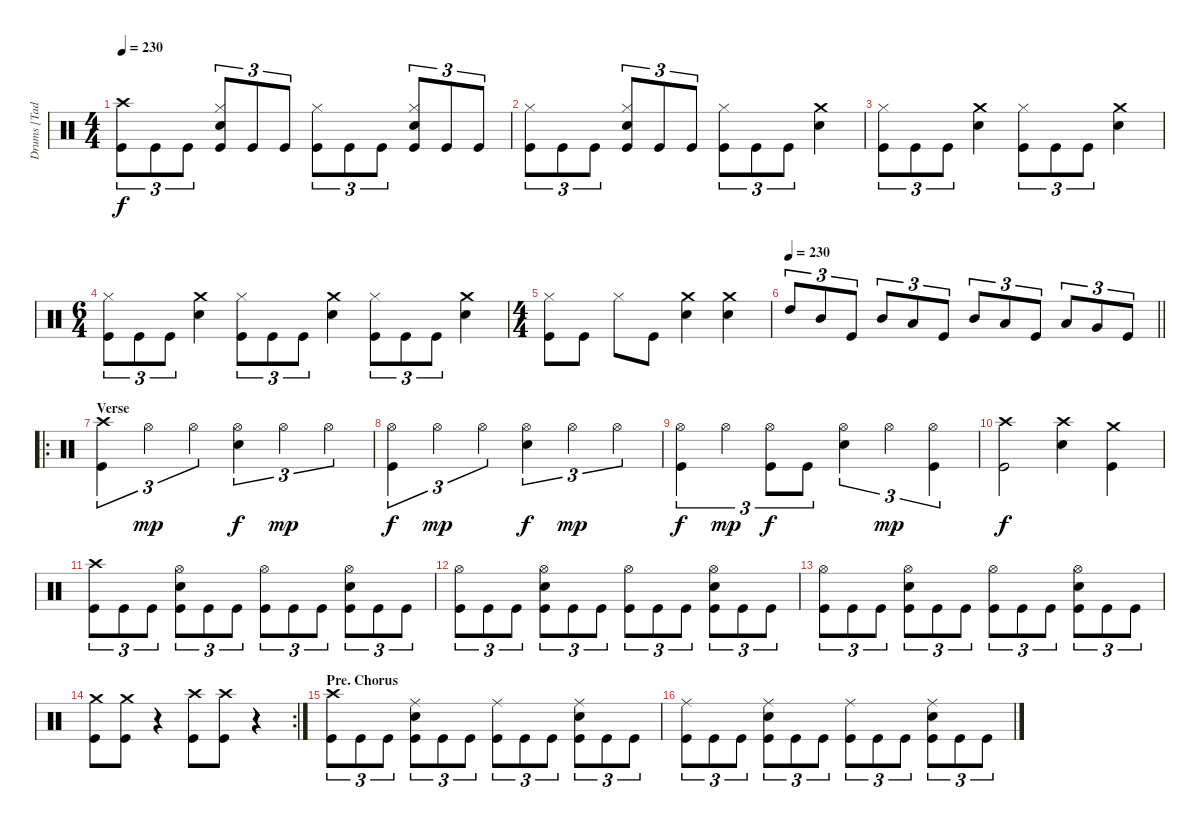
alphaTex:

\track ("Drums [Tad Leger]" "Drums [Tad") {instrument percussion}
\staff {score}
\articulation defaults
\ts (4 4)
\tempo 230
\clef neutral
\ks c
("Crash high (hit)" "Kick (hit)").8{tu (3 2) dy f} "Kick (hit)".8{tu (3 2)} "Kick (hit)".8{tu (3 2)} ("Hi-Hat (closed)" "Electric Snare (hit)" "Kick (hit)").8{tu (3 2)} "Kick (hit)".8{tu (3 2)} "Kick (hit)".8{tu (3 2)} ("Hi-Hat (closed)" "Kick (hit)").8{tu (3 2)} "Kick (hit)".8{tu (3 2)} "Kick (hit)".8{tu (3 2)} ("Hi-Hat (closed)" "Electric Snare (hit)" "Kick (hit)").8{tu (3 2)} "Kick (hit)".8{tu (3 2)} "Kick (hit)".8{tu (3 2)} |
("Hi-Hat (closed)" "Kick (hit)").8{tu (3 2)} "Kick (hit)".8{tu (3 2)} "Kick (hit)".8{tu (3 2)} ("Hi-Hat (closed)" "Electric Snare (hit)" "Kick (hit)").8{tu (3 2)} "Kick (hit)".8{tu (3 2)} "Kick (hit)".8{tu (3 2)} ("Hi-Hat (closed)" "Kick (hit)").8{tu (3 2)} "Kick (hit)".8{tu (3 2)} "Kick (hit)".8{tu (3 2)} ("Crash medium (hit)" "Electric Snare (hit)").4 |
("Hi-Hat (closed)" "Kick (hit)").8{tu (3 2)} "Kick (hit)".8{tu (3 2)} "Kick (hit)".8{tu (3 2)} ("Crash medium (hit)" "Electric Snare (hit)").4 ("Hi-Hat (closed)" "Kick (hit)").8{tu (3 2)} "Kick (hit)".8{tu (3 2)} "Kick (hit)".8{tu (3 2)} ("Crash medium (hit)" "Electric Snare (hit)").4 |
\ts (6 4)
("Hi-Hat (closed)" "Kick (hit)").8{tu (3 2)} "Kick (hit)".8{tu (3 2)} "Kick (hit)".8{tu (3 2)} ("Crash medium (hit)" "Electric Snare (hit)").4 ("Hi-Hat (closed)" "Kick (hit)").8{tu (3 2)} "Kick (hit)".8{tu (3 2)} "Kick (hit)".8{tu (3 2)} ("Crash medium (hit)" "Electric Snare (hit)").4 ("Hi-Hat (closed)" "Kick (hit)").8{tu (3 2)} "Kick (hit)".8{tu (3 2)} "Kick (hit)".8{tu (3 2)} ("Crash medium (hit)" "Electric Snare (hit)").4 |
\ts (4 4)
("Hi-Hat (closed)" "Kick (hit)").8 "Kick (hit)".8 "Hi-Hat (closed)".8 "Kick (hit)".8 ("Crash medium (hit)" "Electric Snare (hit)").4 ("Crash medium (hit)" "Electric Snare (hit)").4 |
\tempo 230
\barLineRight lightlight "High Tom (hit)".8{tu (3 2)} "Mid Tom (hit)".8{tu (3 2)} "Kick (hit)".8{tu (3 2)} "Mid Tom (hit)".8{tu (3 2)} "Low Tom (hit)".8{tu (3 2)} "Kick (hit)".8{tu (3 2)} "Mid Tom (hit)".8{tu (3 2)} "Low Tom (hit)".8{tu (3 2)} "Kick (hit)".8{tu (3 2)} "Low Tom (hit)".8{tu (3 2)} "Very Low Tom (hit)".8{tu (3 2)} "Kick (hit)".8{tu (3 2)}
|
\ro
\section ("" "Verse")
("Crash high (hit)" "Kick (hit)").4{tu (3 2)} "Hi-Hat (open)".4{tu (3 2) dy mp} "Hi-Hat (open)".4{tu (3 2)} ("Hi-Hat (open)" "Electric Snare (hit)").4{tu (3 2) dy f} "Hi-Hat (open)".4{tu (3 2) dy mp} "Hi-Hat (open)".4{tu (3 2)} |
("Hi-Hat (open)" "Kick (hit)").4{tu (3 2) dy f} "Hi-Hat (open)".4{tu (3 2) dy mp} "Hi-Hat (open)".4{tu (3 2)} ("Hi-Hat (open)" "Electric Snare (hit)").4{tu (3 2) dy f} "Hi-Hat (open)".4{tu (3 2) dy mp} "Hi-Hat (open)".4{tu (3 2)} |
("Hi-Hat (open)" "Kick (hit)").4{tu (3 2) dy f} "Hi-Hat (open)".4{tu (3 2) dy mp} ("Hi-Hat (open)" "Kick (hit)").8{tu (3 2) dy f} "Kick (hit)".8{tu (3 2)} ("Hi-Hat (open)" "Electric Snare (hit)").4{tu (3 2)} "Hi-Hat (open)".4{tu (3 2) dy mp} ("Hi-Hat (open)" "Kick (hit)").4{tu (3 2)} |
("Crash high (hit)" "Kick (hit)").2{dy f} ("Crash high (hit)" "Electric Snare (hit)").4 ("Crash medium (hit)" "Kick (hit)").4 |
("Crash high (hit)" "Kick (hit)").8{tu (3 2)} "Kick (hit)".8{tu (3 2)} "Kick (hit)".8{tu (3 2)} ("Hi-Hat (open)" "Electric Snare (hit)" "Kick (hit)").8{tu (3 2)} "Kick (hit)".8{tu (3 2)} "Kick (hit)".8{tu (3 2)} ("Hi-Hat (open)" "Kick (hit)").8{tu (3 2)} "Kick (hit)".8{tu (3 2)} "Kick (hit)".8{tu (3 2)} ("Hi-Hat (open)" "Electric Snare (hit)" "Kick (hit)").8{tu (3 2)} "Kick (hit)".8{tu (3 2)} "Kick (hit)".8{tu (3 2)} |
("Hi-Hat (open)" "Kick (hit)").8{tu (3 2)} "Kick (hit)".8{tu (3 2)} "Kick (hit)".8{tu (3 2)} ("Hi-Hat (open)" "Electric Snare (hit)" "Kick (hit)").8{tu (3 2)} "Kick (hit)".8{tu (3 2)} "Kick (hit)".8{tu (3 2)} ("Hi-Hat (open)" "Kick (hit)").8{tu (3 2)} "Kick (hit)".8{tu (3 2)} "Kick (hit)".8{tu (3 2)} ("Hi-Hat (open)" "Electric Snare (hit)" "Kick (hit)").8{tu (3 2)} "Kick (hit)".8{tu (3 2)} "Kick (hit)".8{tu (3 2)} |
("Hi-Hat (open)" "Kick (hit)").8{tu (3 2)} "Kick (hit)".8{tu (3 2)} "Kick (hit)".8{tu (3 2)} ("Hi-Hat (open)" "Electric Snare (hit)" "Kick (hit)").8{tu (3 2)} "Kick (hit)".8{tu (3 2)} "Kick (hit)".8{tu (3 2)} ("Hi-Hat (open)" "Kick (hit)").8{tu (3 2)} "Kick (hit)".8{tu (3 2)} "Kick (hit)".8{tu (3 2)} ("Hi-Hat (open)" "Electric Snare (hit)" "Kick (hit)").8{tu (3 2)} "Kick (hit)".8{tu (3 2)} "Kick (hit)".8{tu (3 2)} |
\rc 2
("Crash medium (hit)" "Kick (hit)").8 ("Crash medium (hit)" "Kick (hit)").8 r.4 ("Crash high (hit)" "Kick (hit)").8 ("Crash high (hit)" "Kick (hit)").8 r.4 |
\section ("" "Pre. Chorus")
("Crash high (hit)" "Kick (hit)").8{tu (3 2)} "Kick (hit)".8{tu (3 2)} "Kick (hit)".8{tu (3 2)} ("Ride (middle)" "Electric Snare (hit)" "Kick (hit)").8{tu (3 2)} "Kick (hit)".8{tu (3 2)} "Kick (hit)".8{tu (3 2)} ("Ride (middle)" "Kick (hit)").8{tu (3 2)} "Kick (hit)".8{tu (3 2)} "Kick (hit)".8{tu (3 2)} ("Ride (middle)" "Electric Snare (hit)" "Kick (hit)").8{tu (3 2)} "Kick (hit)".8{tu (3 2)} "Kick (hit)".8{tu (3 2)} |
("Ride (middle)" "Kick (hit)").8{tu (3 2)} "Kick (hit)".8{tu (3 2)} "Kick (hit)".8{tu (3 2)} ("Ride (middle)" "Electric Snare (hit)" "Kick (hit)").8{tu (3 2)} "Kick (hit)".8{tu (3 2)} "Kick (hit)".8{tu (3 2)} ("Ride (middle)" "Kick (hit)").8{tu (3 2)} "Kick (hit)".8{tu (3 2)} "Kick (hit)".8{tu (3 2)} ("Ride (middle)" "Electric Snare (hit)" "Kick (hit)").8{tu (3 2)} "Kick (hit)".8{tu (3 2)} "Kick (hit)".8{tu (3 2)}
